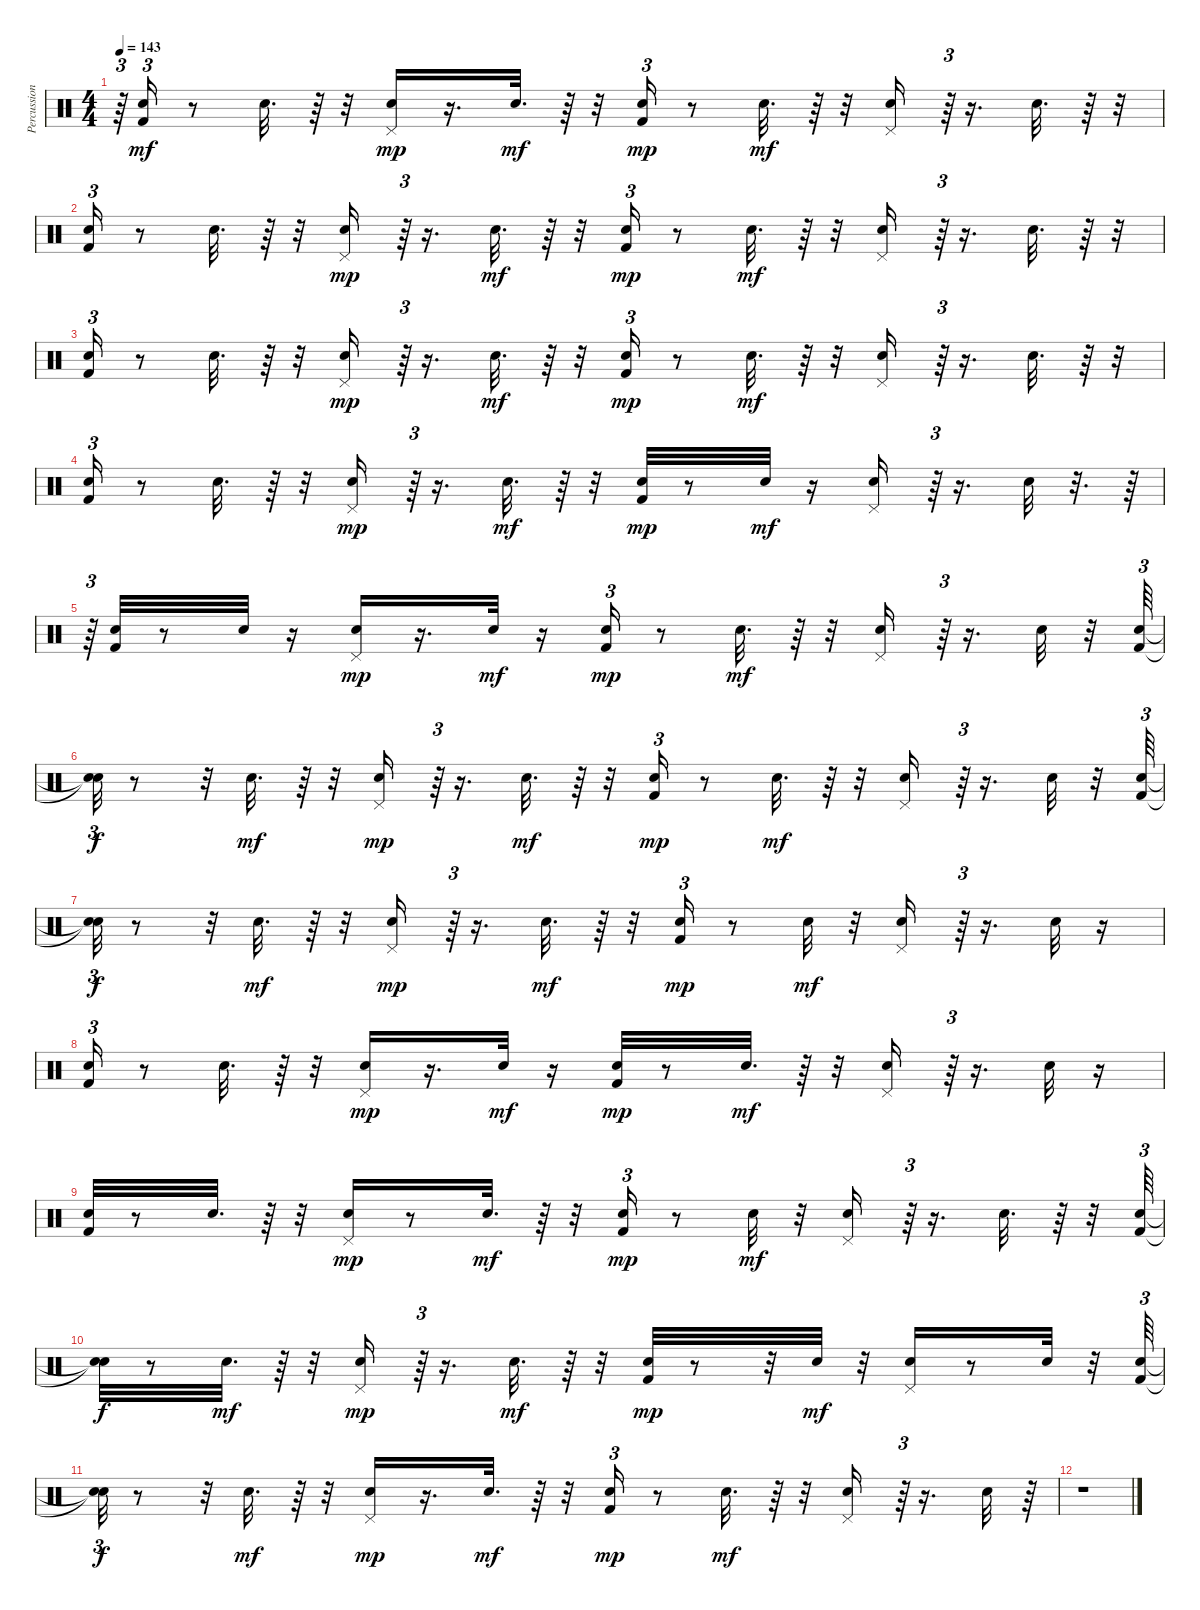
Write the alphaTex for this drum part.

\track ("Percussion" "Percussion") {instrument percussion}
\staff {score}
\articulation defaults
\ts (4 4)
\tempo 143
\clef neutral
\ks c
r.64{tu (3 2) dy mf} ("Kick (hit) 2" "Snare (hit) 2").16{tu (3 2)} r.8 "Snare (hit) 2".32{d} r.64 r.32 ("Hand Clap (hit)" "Pedal Hi-Hat (hit)").16{dy mp} r.16{d} "Hand Clap (hit)".32{d dy mf} r.64 r.32 ("Kick (hit) 2" "Snare (hit) 2").16{tu (3 2) dy mp} r.8 "Snare (hit) 2".32{d dy mf} r.64 r.32 ("Hand Clap (hit)" "Pedal Hi-Hat (hit)").16 r.64{tu (3 2)} r.16{d} "Hand Clap (hit)".32{d} r.64 r.32 |
("Kick (hit) 2" "Snare (hit) 2").16{tu (3 2)} r.8 "Snare (hit) 2".32{d} r.64 r.32 ("Hand Clap (hit)" "Pedal Hi-Hat (hit)").16{dy mp} r.64{tu (3 2)} r.16{d} "Hand Clap (hit)".32{d dy mf} r.64 r.32 ("Kick (hit) 2" "Snare (hit) 2").16{tu (3 2) dy mp} r.8 "Snare (hit) 2".32{d dy mf} r.64 r.32 ("Hand Clap (hit)" "Pedal Hi-Hat (hit)").16 r.64{tu (3 2)} r.16{d} "Hand Clap (hit)".32{d} r.64 r.32 |
("Kick (hit) 2" "Snare (hit) 2").16{tu (3 2)} r.8 "Snare (hit) 2".32{d} r.64 r.32 ("Hand Clap (hit)" "Pedal Hi-Hat (hit)").16{dy mp} r.64{tu (3 2)} r.16{d} "Hand Clap (hit)".32{d dy mf} r.64 r.32 ("Kick (hit) 2" "Snare (hit) 2").16{tu (3 2) dy mp} r.8 "Snare (hit) 2".32{d dy mf} r.64 r.32 ("Hand Clap (hit)" "Pedal Hi-Hat (hit)").16 r.64{tu (3 2)} r.16{d} "Hand Clap (hit)".32{d} r.64 r.32 |
("Kick (hit) 2" "Snare (hit) 2").16{tu (3 2)} r.8 "Snare (hit) 2".32{d} r.64 r.32 ("Hand Clap (hit)" "Pedal Hi-Hat (hit)").16{dy mp} r.64{tu (3 2)} r.16{d} "Hand Clap (hit)".32{d dy mf} r.64 r.32 ("Kick (hit) 2" "Snare (hit) 2").32{dy mp} r.8 "Snare (hit) 2".32{dy mf} r.16 ("Hand Clap (hit)" "Pedal Hi-Hat (hit)").16 r.64{tu (3 2)} r.16{d} "Hand Clap (hit)".32 r.32{d} r.64 |
r.64{tu (3 2)} ("Kick (hit) 2" "Snare (hit) 2").32 r.8 "Snare (hit) 2".32 r.16 ("Hand Clap (hit)" "Pedal Hi-Hat (hit)").16{dy mp} r.16{d} "Hand Clap (hit)".32{dy mf} r.16 ("Kick (hit) 2" "Snare (hit) 2").16{tu (3 2) dy mp} r.8 "Snare (hit) 2".32{d dy mf} r.64 r.32 ("Hand Clap (hit)" "Pedal Hi-Hat (hit)").16 r.64{tu (3 2)} r.16{d} "Hand Clap (hit)".32 r.32 ("Kick (hit) 2" "Snare (hit) 2").64{tu (3 2)} |
("Snare (hit)"{t} "Snare (hit)"{t}).32{tu (3 2) dy f} r.8 r.32 "Snare (hit) 2".32{d dy mf} r.64 r.32 ("Hand Clap (hit)" "Pedal Hi-Hat (hit)").16{dy mp} r.64{tu (3 2)} r.16{d} "Hand Clap (hit)".32{d dy mf} r.64 r.32 ("Kick (hit) 2" "Snare (hit) 2").16{tu (3 2) dy mp} r.8 "Snare (hit) 2".32{d dy mf} r.64 r.32 ("Hand Clap (hit)" "Pedal Hi-Hat (hit)").16 r.64{tu (3 2)} r.16{d} "Hand Clap (hit)".32 r.32 ("Kick (hit) 2" "Snare (hit) 2").64{tu (3 2)} |
("Snare (hit)"{t} "Snare (hit)"{t}).32{tu (3 2) dy f} r.8 r.32 "Snare (hit) 2".32{d dy mf} r.64 r.32 ("Hand Clap (hit)" "Pedal Hi-Hat (hit)").16{dy mp} r.64{tu (3 2)} r.16{d} "Hand Clap (hit)".32{d dy mf} r.64 r.32 ("Kick (hit) 2" "Snare (hit) 2").16{tu (3 2) dy mp} r.8 "Snare (hit) 2".32{dy mf} r.32 ("Hand Clap (hit)" "Pedal Hi-Hat (hit)").16 r.64{tu (3 2)} r.16{d} "Hand Clap (hit)".32 r.16 |
("Kick (hit) 2" "Snare (hit) 2").16{tu (3 2)} r.8 "Snare (hit) 2".32{d} r.64 r.32 ("Hand Clap (hit)" "Pedal Hi-Hat (hit)").16{dy mp} r.16{d} "Hand Clap (hit)".32{dy mf} r.16 ("Kick (hit) 2" "Snare (hit) 2").32{dy mp} r.8 "Snare (hit) 2".32{d dy mf} r.64 r.32 ("Hand Clap (hit)" "Pedal Hi-Hat (hit)").16 r.64{tu (3 2)} r.16{d} "Hand Clap (hit)".32 r.16 |
("Kick (hit) 2" "Snare (hit) 2").32 r.8 "Snare (hit) 2".32{d} r.64 r.32 ("Pedal Hi-Hat (hit)" "Hand Clap (hit)").16{dy mp} r.8 "Hand Clap (hit)".32{d dy mf} r.64 r.32 ("Kick (hit) 2" "Snare (hit) 2").16{tu (3 2) dy mp} r.8 "Snare (hit) 2".32{dy mf} r.32 ("Pedal Hi-Hat (hit)" "Hand Clap (hit)").16 r.64{tu (3 2)} r.16{d} "Hand Clap (hit)".32{d} r.64 r.32 ("Kick (hit) 2" "Snare (hit) 2").64{tu (3 2)} |
("Snare (hit)"{t} "Snare (hit)"{t}).32{dy f} r.8 "Snare (hit) 2".32{d dy mf} r.64 r.32 ("Hand Clap (hit)" "Pedal Hi-Hat (hit)").16{dy mp} r.64{tu (3 2)} r.16{d} "Hand Clap (hit)".32{d dy mf} r.64 r.32 ("Kick (hit) 2" "Snare (hit) 2").32{dy mp} r.8 r.32 "Snare (hit) 2".32{dy mf} r.32 ("Hand Clap (hit)" "Pedal Hi-Hat (hit)").16 r.8 "Hand Clap (hit)".32 r.32 ("Kick (hit) 2" "Snare (hit) 2").64{tu (3 2)} |
("Snare (hit)"{t} "Snare (hit)"{t}).32{tu (3 2) dy f} r.8 r.32 "Snare (hit) 2".32{d dy mf} r.64 r.32 ("Hand Clap (hit)" "Pedal Hi-Hat (hit)").16{dy mp} r.16{d} "Hand Clap (hit)".32{d dy mf} r.64 r.32 ("Kick (hit) 2" "Snare (hit) 2").16{tu (3 2) dy mp} r.8 "Snare (hit) 2".32{d dy mf} r.64 r.32 ("Hand Clap (hit)" "Pedal Hi-Hat (hit)").16 r.64{tu (3 2)} r.16{d} "Hand Clap (hit)".32 r.64 |
r.1
